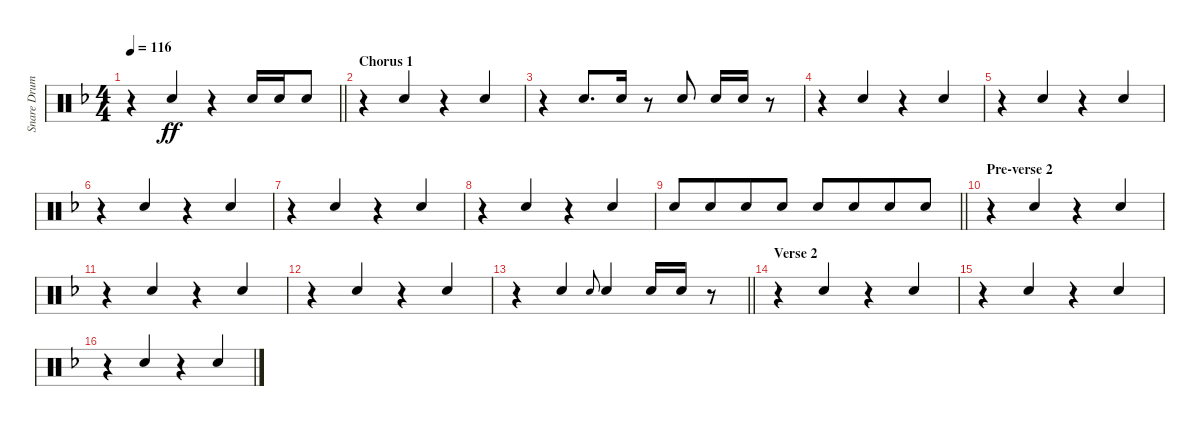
\track ("Snare Drum" "Snare Drum") {instrument percussion}
\staff {score}
\articulation defaults
\ts (4 4)
\tempo 116
\clef neutral
\barLineRight lightlight
\ks f
r.4{dy ff beam merge} "Electric Snare (hit)".4{beam Up} r.4 "Electric Snare (hit)".16{beam Up} "Electric Snare (hit)".16{beam Up} "Electric Snare (hit)".8{beam Up} |
\section ("" "Chorus 1")
r.4{beam merge} "Electric Snare (hit)".4{beam Up} r.4{beam merge} "Electric Snare (hit)".4{beam Up} |
r.4 "Electric Snare (hit)".8{d beam Up} "Electric Snare (hit)".16{beam Up} r.8 "Electric Snare (hit)".8{beam Up} "Electric Snare (hit)".16{beam Up} "Electric Snare (hit)".16{beam Up} r.8 |
r.4{beam merge} "Electric Snare (hit)".4{beam Up} r.4{beam merge} "Electric Snare (hit)".4{beam Up} |
r.4{beam merge} "Electric Snare (hit)".4{beam Up} r.4{beam merge} "Electric Snare (hit)".4{beam Up} |
r.4{beam merge} "Electric Snare (hit)".4{beam Up} r.4{beam merge} "Electric Snare (hit)".4{beam Up} |
r.4{beam merge} "Electric Snare (hit)".4{beam Up} r.4{beam merge} "Electric Snare (hit)".4{beam Up} |
r.4{beam merge} "Electric Snare (hit)".4{beam Up} r.4{beam merge} "Electric Snare (hit)".4{beam Up} |
\barLineRight lightlight "Electric Snare (hit)".8{beam Up} "Electric Snare (hit)".8{beam Up beam merge} "Electric Snare (hit)".8{beam Up} "Electric Snare (hit)".8{beam Up} "Electric Snare (hit)".8{beam Up} "Electric Snare (hit)".8{beam Up beam merge} "Electric Snare (hit)".8{beam Up} "Electric Snare (hit)".8{beam Up}
|
\section ("" "Pre-verse 2")
r.4{beam merge} "Electric Snare (hit)".4{beam Up} r.4{beam merge} "Electric Snare (hit)".4{beam Up} |
r.4{beam merge} "Electric Snare (hit)".4{beam Up} r.4{beam merge} "Electric Snare (hit)".4{beam Up} |
r.4{beam merge} "Electric Snare (hit)".4{beam Up} r.4{beam merge} "Electric Snare (hit)".4{beam Up} |
\barLineRight lightlight
r.4{beam merge} "Electric Snare (hit)".4{beam Up} "Electric Snare (hit)".8{gr onbeat} "Electric Snare (hit)".4{beam Up} "Electric Snare (hit)".16{beam Up} "Electric Snare (hit)".16{beam Up} r.8 |
\section ("" "Verse 2")
r.4{beam merge} "Electric Snare (hit)".4{beam Up} r.4{beam merge} "Electric Snare (hit)".4{beam Up} |
r.4{beam merge} "Electric Snare (hit)".4{beam Up} r.4{beam merge} "Electric Snare (hit)".4{beam Up} |
r.4{beam merge} "Electric Snare (hit)".4{beam Up} r.4{beam merge} "Electric Snare (hit)".4{beam Up}
